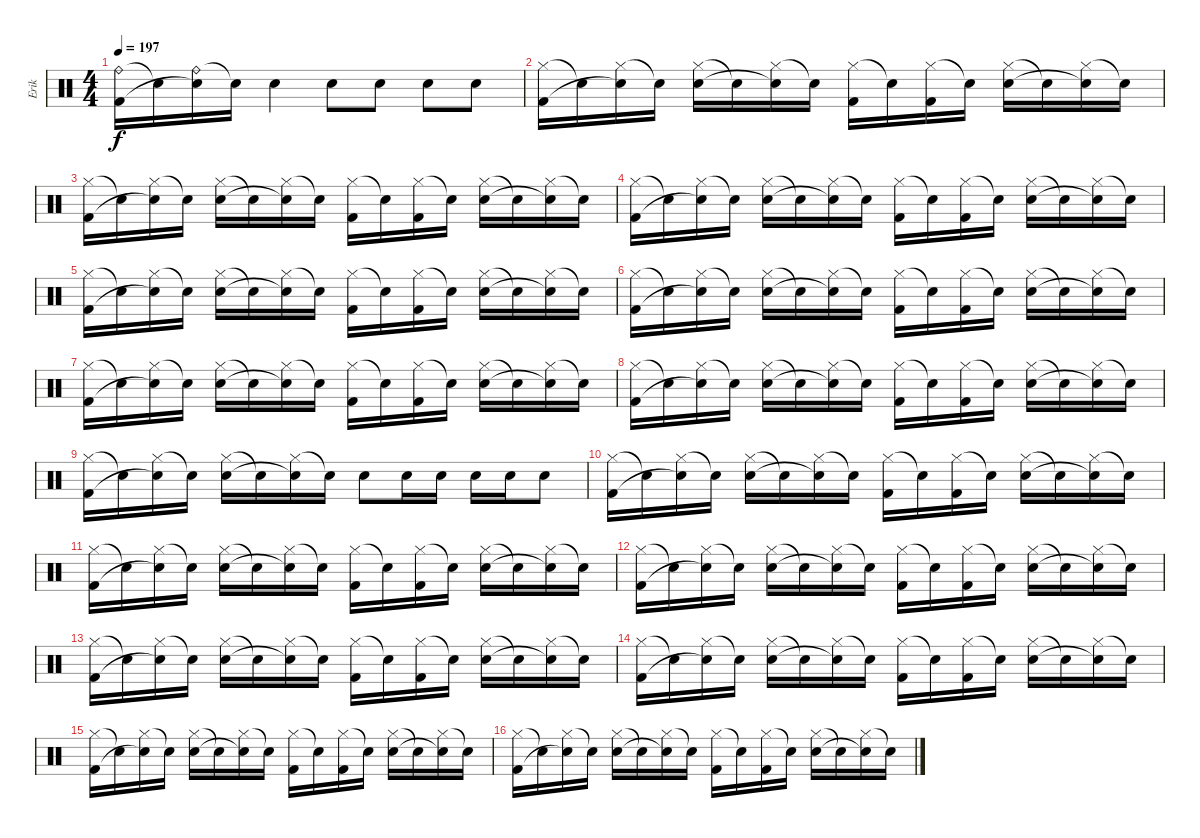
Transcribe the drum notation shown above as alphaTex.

\track ("Erik" "Erik") {instrument percussion}
\staff {score}
\articulation defaults
\ts (4 4)
\tempo 197
\clef neutral
\ks c
("Ride (bell)" "Kick (hit) 2").16{dy f} "Snare (hit)"{t}.16 ("Ride (bell)" "Snare (hit)"{t}).16 "Snare (hit)"{t}.16 "Electric Snare (hit)".4 "Electric Snare (hit)".8 "Electric Snare (hit)".8 "Electric Snare (hit)".8 "Electric Snare (hit)".8 |
("Hi-Hat (closed)" "Kick (hit) 2").16 "Snare (hit)"{t}.16 ("Hi-Hat (closed)" "Snare (hit)"{t}).16 "Snare (hit)"{t}.16 ("Hi-Hat (closed)" "Electric Snare (hit)").16 "Snare (hit)"{t}.16 ("Hi-Hat (closed)" "Snare (hit)"{t}).16 "Snare (hit)"{t}.16 ("Hi-Hat (closed)" "Kick (hit) 2").16 "Snare (hit)"{t}.16 ("Hi-Hat (closed)" "Kick (hit) 2").16 "Snare (hit)"{t}.16 ("Hi-Hat (closed)" "Electric Snare (hit)").16 "Snare (hit)"{t}.16 ("Hi-Hat (closed)" "Snare (hit)"{t}).16 "Snare (hit)"{t}.16 |
("Hi-Hat (closed)" "Kick (hit) 2").16 "Snare (hit)"{t}.16 ("Hi-Hat (closed)" "Snare (hit)"{t}).16 "Snare (hit)"{t}.16 ("Hi-Hat (closed)" "Electric Snare (hit)").16 "Snare (hit)"{t}.16 ("Hi-Hat (closed)" "Snare (hit)"{t}).16 "Snare (hit)"{t}.16 ("Hi-Hat (closed)" "Kick (hit) 2").16 "Snare (hit)"{t}.16 ("Hi-Hat (closed)" "Kick (hit) 2").16 "Snare (hit)"{t}.16 ("Hi-Hat (closed)" "Electric Snare (hit)").16 "Snare (hit)"{t}.16 ("Hi-Hat (closed)" "Snare (hit)"{t}).16 "Snare (hit)"{t}.16 |
("Hi-Hat (closed)" "Kick (hit) 2").16 "Snare (hit)"{t}.16 ("Hi-Hat (closed)" "Snare (hit)"{t}).16 "Snare (hit)"{t}.16 ("Hi-Hat (closed)" "Electric Snare (hit)").16 "Snare (hit)"{t}.16 ("Hi-Hat (closed)" "Snare (hit)"{t}).16 "Snare (hit)"{t}.16 ("Hi-Hat (closed)" "Kick (hit) 2").16 "Snare (hit)"{t}.16 ("Hi-Hat (closed)" "Kick (hit) 2").16 "Snare (hit)"{t}.16 ("Hi-Hat (closed)" "Electric Snare (hit)").16 "Snare (hit)"{t}.16 ("Hi-Hat (closed)" "Snare (hit)"{t}).16 "Snare (hit)"{t}.16 |
("Hi-Hat (closed)" "Kick (hit) 2").16 "Snare (hit)"{t}.16 ("Hi-Hat (closed)" "Snare (hit)"{t}).16 "Snare (hit)"{t}.16 ("Hi-Hat (closed)" "Electric Snare (hit)").16 "Snare (hit)"{t}.16 ("Hi-Hat (closed)" "Snare (hit)"{t}).16 "Snare (hit)"{t}.16 ("Hi-Hat (closed)" "Kick (hit) 2").16 "Snare (hit)"{t}.16 ("Hi-Hat (closed)" "Kick (hit) 2").16 "Snare (hit)"{t}.16 ("Hi-Hat (closed)" "Electric Snare (hit)").16 "Snare (hit)"{t}.16 ("Hi-Hat (closed)" "Snare (hit)"{t}).16 "Snare (hit)"{t}.16 |
("Hi-Hat (closed)" "Kick (hit) 2").16 "Snare (hit)"{t}.16 ("Hi-Hat (closed)" "Snare (hit)"{t}).16 "Snare (hit)"{t}.16 ("Hi-Hat (closed)" "Electric Snare (hit)").16 "Snare (hit)"{t}.16 ("Hi-Hat (closed)" "Snare (hit)"{t}).16 "Snare (hit)"{t}.16 ("Hi-Hat (closed)" "Kick (hit) 2").16 "Snare (hit)"{t}.16 ("Hi-Hat (closed)" "Kick (hit) 2").16 "Snare (hit)"{t}.16 ("Hi-Hat (closed)" "Electric Snare (hit)").16 "Snare (hit)"{t}.16 ("Hi-Hat (closed)" "Snare (hit)"{t}).16 "Snare (hit)"{t}.16 |
("Hi-Hat (closed)" "Kick (hit) 2").16 "Snare (hit)"{t}.16 ("Hi-Hat (closed)" "Snare (hit)"{t}).16 "Snare (hit)"{t}.16 ("Hi-Hat (closed)" "Electric Snare (hit)").16 "Snare (hit)"{t}.16 ("Hi-Hat (closed)" "Snare (hit)"{t}).16 "Snare (hit)"{t}.16 ("Hi-Hat (closed)" "Kick (hit) 2").16 "Snare (hit)"{t}.16 ("Hi-Hat (closed)" "Kick (hit) 2").16 "Snare (hit)"{t}.16 ("Hi-Hat (closed)" "Electric Snare (hit)").16 "Snare (hit)"{t}.16 ("Hi-Hat (closed)" "Snare (hit)"{t}).16 "Snare (hit)"{t}.16 |
("Hi-Hat (closed)" "Kick (hit) 2").16 "Snare (hit)"{t}.16 ("Hi-Hat (closed)" "Snare (hit)"{t}).16 "Snare (hit)"{t}.16 ("Hi-Hat (closed)" "Electric Snare (hit)").16 "Snare (hit)"{t}.16 ("Hi-Hat (closed)" "Snare (hit)"{t}).16 "Snare (hit)"{t}.16 ("Hi-Hat (closed)" "Kick (hit) 2").16 "Snare (hit)"{t}.16 ("Hi-Hat (closed)" "Kick (hit) 2").16 "Snare (hit)"{t}.16 ("Hi-Hat (closed)" "Electric Snare (hit)").16 "Snare (hit)"{t}.16 ("Hi-Hat (closed)" "Snare (hit)"{t}).16 "Snare (hit)"{t}.16 |
("Hi-Hat (closed)" "Kick (hit) 2").16 "Snare (hit)"{t}.16 ("Hi-Hat (closed)" "Snare (hit)"{t}).16 "Snare (hit)"{t}.16 ("Hi-Hat (closed)" "Electric Snare (hit)").16 "Snare (hit)"{t}.16 ("Hi-Hat (closed)" "Snare (hit)"{t}).16 "Snare (hit)"{t}.16 "Electric Snare (hit)".8 "Electric Snare (hit)".16 "Electric Snare (hit)".16 "Electric Snare (hit)".16 "Electric Snare (hit)".16 "Electric Snare (hit)".8 |
("Hi-Hat (closed)" "Kick (hit) 2").16 "Snare (hit)"{t}.16 ("Hi-Hat (closed)" "Snare (hit)"{t}).16 "Snare (hit)"{t}.16 ("Hi-Hat (closed)" "Electric Snare (hit)").16 "Snare (hit)"{t}.16 ("Hi-Hat (closed)" "Snare (hit)"{t}).16 "Snare (hit)"{t}.16 ("Hi-Hat (closed)" "Kick (hit) 2").16 "Snare (hit)"{t}.16 ("Hi-Hat (closed)" "Kick (hit) 2").16 "Snare (hit)"{t}.16 ("Hi-Hat (closed)" "Electric Snare (hit)").16 "Snare (hit)"{t}.16 ("Hi-Hat (closed)" "Snare (hit)"{t}).16 "Snare (hit)"{t}.16 |
("Hi-Hat (closed)" "Kick (hit) 2").16 "Snare (hit)"{t}.16 ("Hi-Hat (closed)" "Snare (hit)"{t}).16 "Snare (hit)"{t}.16 ("Hi-Hat (closed)" "Electric Snare (hit)").16 "Snare (hit)"{t}.16 ("Hi-Hat (closed)" "Snare (hit)"{t}).16 "Snare (hit)"{t}.16 ("Hi-Hat (closed)" "Kick (hit) 2").16 "Snare (hit)"{t}.16 ("Hi-Hat (closed)" "Kick (hit) 2").16 "Snare (hit)"{t}.16 ("Hi-Hat (closed)" "Electric Snare (hit)").16 "Snare (hit)"{t}.16 ("Hi-Hat (closed)" "Snare (hit)"{t}).16 "Snare (hit)"{t}.16 |
("Hi-Hat (closed)" "Kick (hit) 2").16 "Snare (hit)"{t}.16 ("Hi-Hat (closed)" "Snare (hit)"{t}).16 "Snare (hit)"{t}.16 ("Hi-Hat (closed)" "Electric Snare (hit)").16 "Snare (hit)"{t}.16 ("Hi-Hat (closed)" "Snare (hit)"{t}).16 "Snare (hit)"{t}.16 ("Hi-Hat (closed)" "Kick (hit) 2").16 "Snare (hit)"{t}.16 ("Hi-Hat (closed)" "Kick (hit) 2").16 "Snare (hit)"{t}.16 ("Hi-Hat (closed)" "Electric Snare (hit)").16 "Snare (hit)"{t}.16 ("Hi-Hat (closed)" "Snare (hit)"{t}).16 "Snare (hit)"{t}.16 |
("Hi-Hat (closed)" "Kick (hit) 2").16 "Snare (hit)"{t}.16 ("Hi-Hat (closed)" "Snare (hit)"{t}).16 "Snare (hit)"{t}.16 ("Hi-Hat (closed)" "Electric Snare (hit)").16 "Snare (hit)"{t}.16 ("Hi-Hat (closed)" "Snare (hit)"{t}).16 "Snare (hit)"{t}.16 ("Hi-Hat (closed)" "Kick (hit) 2").16 "Snare (hit)"{t}.16 ("Hi-Hat (closed)" "Kick (hit) 2").16 "Snare (hit)"{t}.16 ("Hi-Hat (closed)" "Electric Snare (hit)").16 "Snare (hit)"{t}.16 ("Hi-Hat (closed)" "Snare (hit)"{t}).16 "Snare (hit)"{t}.16 |
("Hi-Hat (closed)" "Kick (hit) 2").16 "Snare (hit)"{t}.16 ("Hi-Hat (closed)" "Snare (hit)"{t}).16 "Snare (hit)"{t}.16 ("Hi-Hat (closed)" "Electric Snare (hit)").16 "Snare (hit)"{t}.16 ("Hi-Hat (closed)" "Snare (hit)"{t}).16 "Snare (hit)"{t}.16 ("Hi-Hat (closed)" "Kick (hit) 2").16 "Snare (hit)"{t}.16 ("Hi-Hat (closed)" "Kick (hit) 2").16 "Snare (hit)"{t}.16 ("Hi-Hat (closed)" "Electric Snare (hit)").16 "Snare (hit)"{t}.16 ("Hi-Hat (closed)" "Snare (hit)"{t}).16 "Snare (hit)"{t}.16 |
("Hi-Hat (closed)" "Kick (hit) 2").16 "Snare (hit)"{t}.16 ("Hi-Hat (closed)" "Snare (hit)"{t}).16 "Snare (hit)"{t}.16 ("Hi-Hat (closed)" "Electric Snare (hit)").16 "Snare (hit)"{t}.16 ("Hi-Hat (closed)" "Snare (hit)"{t}).16 "Snare (hit)"{t}.16 ("Hi-Hat (closed)" "Kick (hit) 2").16 "Snare (hit)"{t}.16 ("Hi-Hat (closed)" "Kick (hit) 2").16 "Snare (hit)"{t}.16 ("Hi-Hat (closed)" "Electric Snare (hit)").16 "Snare (hit)"{t}.16 ("Hi-Hat (closed)" "Snare (hit)"{t}).16 "Snare (hit)"{t}.16 |
("Hi-Hat (closed)" "Kick (hit) 2").16 "Snare (hit)"{t}.16 ("Hi-Hat (closed)" "Snare (hit)"{t}).16 "Snare (hit)"{t}.16 ("Hi-Hat (closed)" "Electric Snare (hit)").16 "Snare (hit)"{t}.16 ("Hi-Hat (closed)" "Snare (hit)"{t}).16 "Snare (hit)"{t}.16 ("Hi-Hat (closed)" "Kick (hit) 2").16 "Snare (hit)"{t}.16 ("Hi-Hat (closed)" "Kick (hit) 2").16 "Snare (hit)"{t}.16 ("Hi-Hat (closed)" "Electric Snare (hit)").16 "Snare (hit)"{t}.16 ("Hi-Hat (closed)" "Snare (hit)"{t}).16 "Snare (hit)"{t}.16
